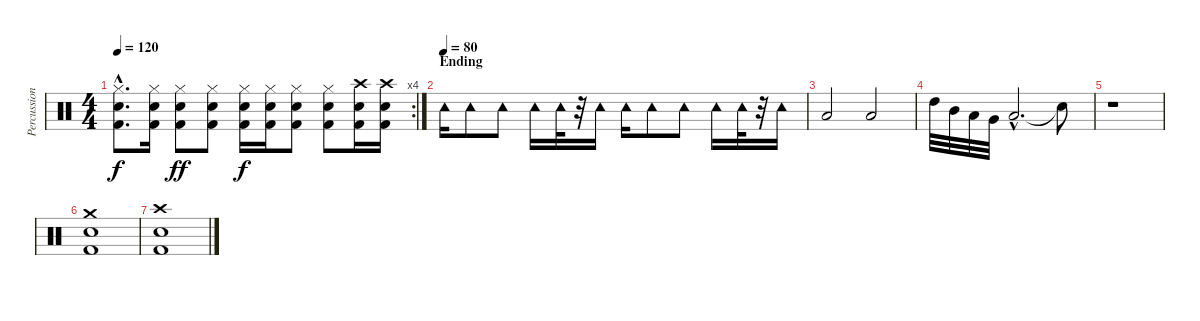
\track ("Percussion" "Percussion") {instrument percussion}
\staff {score}
\articulation defaults
\rc 4
\ts (4 4)
\tempo 120
\clef neutral
\ks c
("Hi-Hat (closed)"{hac} "Snare (hit) 2"{hac} "Kick (hit) 2"{hac}).8{d dy f} ("Hi-Hat (closed)" "Snare (hit) 2" "Kick (hit) 2").16 ("Hi-Hat (closed)" "Electric Snare (hit)" "Kick (hit) 2").8{dy ff} ("Hi-Hat (closed)" "Electric Snare (hit)" "Kick (hit) 2").8 ("Hi-Hat (closed)" "Snare (hit) 2" "Kick (hit) 2").16{dy f} ("Hi-Hat (closed)" "Snare (hit) 2" "Kick (hit) 2").16 ("Hi-Hat (closed)" "Electric Snare (hit)" "Kick (hit) 2").8 ("Hi-Hat (closed)" "Electric Snare (hit)" "Kick (hit) 2").8 ("Crash high (hit)" "Electric Snare (hit)" "Kick (hit) 2").16 ("Crash high (hit)" "Electric Snare (hit)" "Kick (hit) 2").16 |
\section ("" "Ending")
\tempo (80)
"Tambourine (hit)".16 "Tambourine (hit)".8 "Tambourine (hit)".8 "Tambourine (hit)".16 "Tambourine (hit)".32 r.32 "Tambourine (hit)".16 "Tambourine (hit)".16 "Tambourine (hit)".8 "Tambourine (hit)".8 "Tambourine (hit)".16 "Tambourine (hit)".32 r.32 "Tambourine (hit)".16 |
"Low Tom (hit)".2 "Low Floor Tom (hit)".2 |
"High Tom (hit)".32 "Mid Tom (hit)".32 "Low Tom (hit)".32 "Very Low Tom (hit)".32 "Low Floor Tom (hit)"{hac}.2{d} "Snare (hit)"{t}.8 |
r.1 |
("Crash medium (hit)" "Electric Snare (hit)" "Kick (hit) 2").1 |
("Crash high (hit)" "Electric Snare (hit)" "Kick (hit) 2").1
